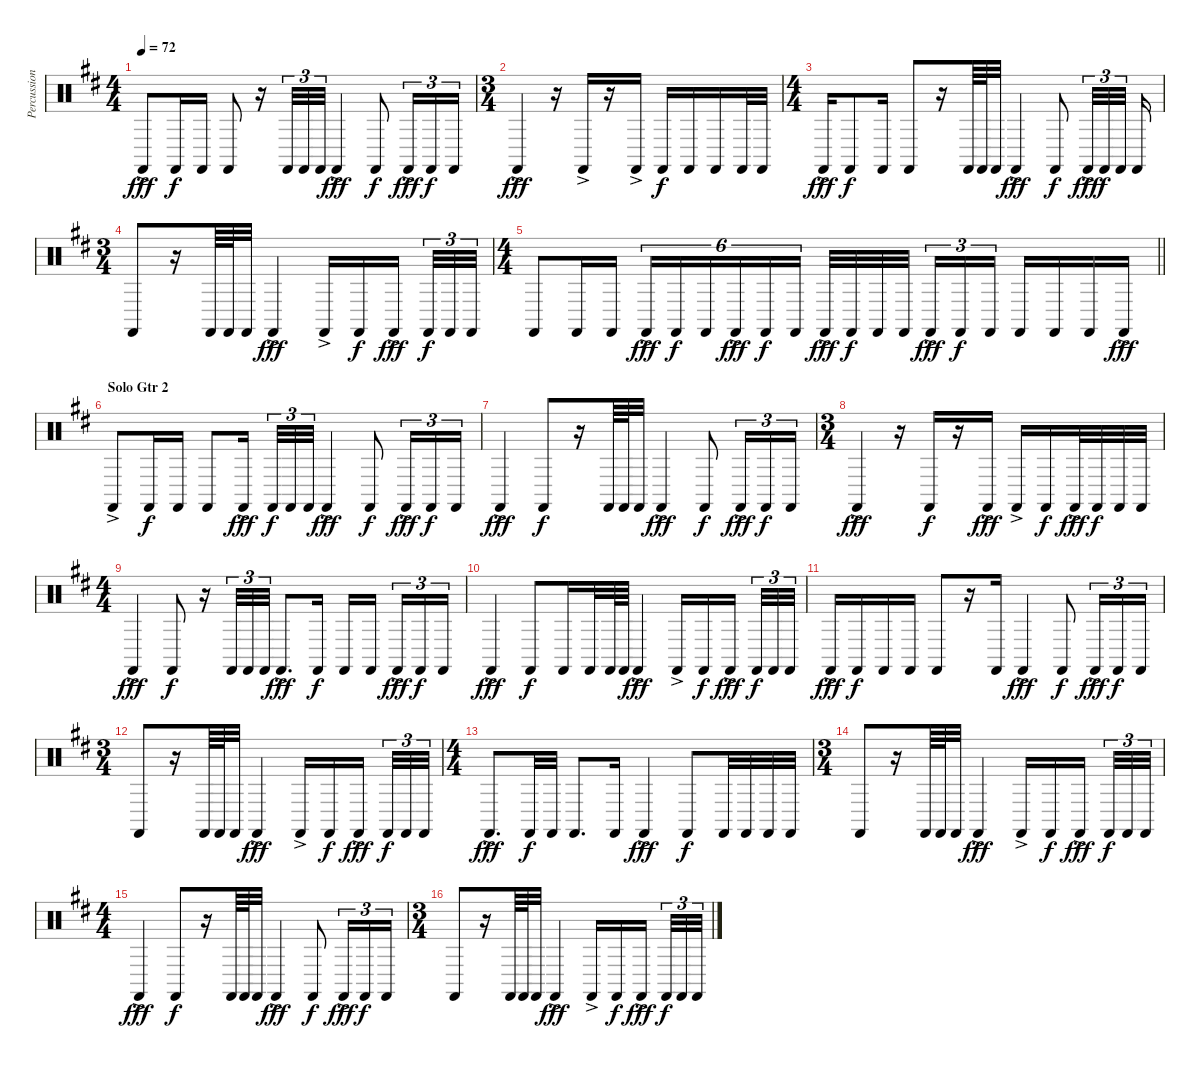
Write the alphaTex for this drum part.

\track ("Percussions" "Percussion") {instrument percussion}
\staff {score}
\articulation defaults
\ts (4 4)
\tempo 72
\clef neutral
\ks bminor "Castanets (hit)"{ac}.8{dy fff} "Castanets (hit)".16{dy f} "Castanets (hit)".16 "Castanets (hit)".8
r.16 "Castanets (hit)".32{tu (3 2)} "Castanets (hit)".32{tu (3 2)} "Castanets (hit)".32{tu (3 2)} "Castanets (hit)"{ac}.4{dy fff} "Castanets (hit)".8{dy f} "Castanets (hit)"{ac}.16{tu (3 2) dy fff} "Castanets (hit)".16{tu (3 2) dy f} "Castanets (hit)".16{tu (3 2)} |
\ts (3 4)
"Castanets (hit)"{ac}.4{dy fff} r.16 "Castanets (hit)"{ac}.16 r.16 "Castanets (hit)"{ac}.16 "Castanets (hit)".16{dy f} "Castanets (hit)".16 "Castanets (hit)".16 "Castanets (hit)".32 "Castanets (hit)".32 |
\ts (4 4)
"Castanets (hit)"{ac}.16{dy fff} "Castanets (hit)".8{dy f} "Castanets (hit)".16 "Castanets (hit)".8 r.16 "Castanets (hit)".64 "Castanets (hit)".64 "Castanets (hit)".32 "Castanets (hit)"{ac}.4{dy fff} "Castanets (hit)".8{dy f} "Castanets (hit)"{ac}.32{tu (3 2) dy fff} "Castanets (hit)".32{tu (3 2) dy f} "Castanets (hit)".32{tu (3 2)} "Castanets (hit)".16 |
\ts (3 4)
"Castanets (hit)".8 r.16 "Castanets (hit)".64 "Castanets (hit)".64 "Castanets (hit)".32 "Castanets (hit)"{ac}.4{dy fff} "Castanets (hit)"{ac}.16 "Castanets (hit)".16{dy f} "Castanets (hit)"{ac}.16{dy fff} "Castanets (hit)".32{tu (3 2) dy f} "Castanets (hit)".32{tu (3 2)} "Castanets (hit)".32{tu (3 2)} |
\ts (4 4)
\barLineRight lightlight "Castanets (hit)".8 "Castanets (hit)".16 "Castanets (hit)".16 "Castanets (hit)"{ac}.16{tu (6 4) dy fff} "Castanets (hit)".16{tu (6 4) dy f} "Castanets (hit)".16{tu (6 4)} "Castanets (hit)"{ac}.16{tu (6 4) dy fff} "Castanets (hit)".16{tu (6 4) dy f} "Castanets (hit)".16{tu (6 4)} "Castanets (hit)"{ac}.32{dy fff} "Castanets (hit)".32{dy f} "Castanets (hit)".32 "Castanets (hit)".32 "Castanets (hit)"{ac}.16{tu (3 2) dy fff} "Castanets (hit)".16{tu (3 2) dy f} "Castanets (hit)".16{tu (3 2)} "Castanets (hit)".16 "Castanets (hit)".16 "Castanets (hit)".16 "Castanets (hit)"{ac}.16{dy fff}
|
\section ("" "Solo Gtr 2")
"Castanets (hit)"{ac}.8{volume 8} "Castanets (hit)".16{dy f} "Castanets (hit)".16 "Castanets (hit)".8 "Castanets (hit)"{ac}.16{dy fff} "Castanets (hit)".32{tu (3 2) dy f} "Castanets (hit)".32{tu (3 2)} "Castanets (hit)".32{tu (3 2)} "Castanets (hit)"{ac}.4{dy fff} "Castanets (hit)".8{dy f} "Castanets (hit)"{ac}.16{tu (3 2) dy fff} "Castanets (hit)".16{tu (3 2) dy f} "Castanets (hit)".16{tu (3 2)} |
"Castanets (hit)"{ac}.4{dy fff} "Castanets (hit)".8{dy f} r.16 "Castanets (hit)".64 "Castanets (hit)".64 "Castanets (hit)".32 "Castanets (hit)"{ac}.4{dy fff} "Castanets (hit)".8{dy f} "Castanets (hit)"{ac}.16{tu (3 2) dy fff} "Castanets (hit)".16{tu (3 2) dy f} "Castanets (hit)".16{tu (3 2)} |
\ts (3 4)
"Castanets (hit)"{ac}.4{dy fff} r.16 "Castanets (hit)".16{dy f} r.16 "Castanets (hit)"{ac}.16{dy fff} "Castanets (hit)"{ac}.16 "Castanets (hit)".16{dy f} "Castanets (hit)"{ac}.32{dy fff} "Castanets (hit)".32{dy f} "Castanets (hit)".32 "Castanets (hit)".32 |
\ts (4 4)
"Castanets (hit)"{ac}.4{dy fff} "Castanets (hit)".8{dy f} r.16 "Castanets (hit)".32{tu (3 2)} "Castanets (hit)".32{tu (3 2)} "Castanets (hit)".32{tu (3 2)} "Castanets (hit)"{ac}.8{d dy fff} "Castanets (hit)".16{dy f} "Castanets (hit)".16 "Castanets (hit)".16 "Castanets (hit)"{ac}.16{tu (3 2) dy fff} "Castanets (hit)".16{tu (3 2) dy f} "Castanets (hit)".16{tu (3 2)} |
"Castanets (hit)"{ac}.4{dy fff} "Castanets (hit)".8{dy f} "Castanets (hit)".16 "Castanets (hit)".32 "Castanets (hit)".64 "Castanets (hit)".64 "Castanets (hit)"{ac}.4{dy fff} "Castanets (hit)"{ac}.16 "Castanets (hit)".16{dy f} "Castanets (hit)"{ac}.16{dy fff} "Castanets (hit)".32{tu (3 2) dy f} "Castanets (hit)".32{tu (3 2)} "Castanets (hit)".32{tu (3 2)} |
"Castanets (hit)"{ac}.16{dy fff} "Castanets (hit)".16{dy f} "Castanets (hit)".16 "Castanets (hit)".16 "Castanets (hit)".8 r.16 "Castanets (hit)".16 "Castanets (hit)"{ac}.4{dy fff} "Castanets (hit)".8{dy f} "Castanets (hit)"{ac}.16{tu (3 2) dy fff} "Castanets (hit)".16{tu (3 2) dy f} "Castanets (hit)".16{tu (3 2)} |
\ts (3 4)
"Castanets (hit)".8 r.16 "Castanets (hit)".64 "Castanets (hit)".64 "Castanets (hit)".32 "Castanets (hit)"{ac}.4{dy fff} "Castanets (hit)"{ac}.16 "Castanets (hit)".16{dy f} "Castanets (hit)"{ac}.16{dy fff} "Castanets (hit)".32{tu (3 2) dy f} "Castanets (hit)".32{tu (3 2)} "Castanets (hit)".32{tu (3 2)} |
\ts (4 4)
"Castanets (hit)"{ac}.8{d dy fff} "Castanets (hit)".32{dy f} "Castanets (hit)".32 "Castanets (hit)".8{d} "Castanets (hit)".16 "Castanets (hit)"{ac}.4{dy fff} "Castanets (hit)".8{dy f} "Castanets (hit)".32 "Castanets (hit)".32 "Castanets (hit)".32 "Castanets (hit)".32 |
\ts (3 4)
"Castanets (hit)".8 r.16 "Castanets (hit)".64 "Castanets (hit)".64 "Castanets (hit)".32 "Castanets (hit)"{ac}.4{dy fff} "Castanets (hit)"{ac}.16 "Castanets (hit)".16{dy f} "Castanets (hit)"{ac}.16{dy fff} "Castanets (hit)".32{tu (3 2) dy f} "Castanets (hit)".32{tu (3 2)} "Castanets (hit)".32{tu (3 2)} |
\ts (4 4)
"Castanets (hit)"{ac}.4{dy fff} "Castanets (hit)".8{dy f} r.16 "Castanets (hit)".64 "Castanets (hit)".64 "Castanets (hit)".32 "Castanets (hit)"{ac}.4{dy fff} "Castanets (hit)".8{dy f} "Castanets (hit)"{ac}.16{tu (3 2) dy fff} "Castanets (hit)".16{tu (3 2) dy f} "Castanets (hit)".16{tu (3 2)} |
\ts (3 4)
"Castanets (hit)".8 r.16 "Castanets (hit)".64 "Castanets (hit)".64 "Castanets (hit)".32 "Castanets (hit)"{ac}.4{dy fff} "Castanets (hit)"{ac}.16 "Castanets (hit)".16{dy f} "Castanets (hit)"{ac}.16{dy fff} "Castanets (hit)".32{tu (3 2) dy f} "Castanets (hit)".32{tu (3 2)} "Castanets (hit)".32{tu (3 2)}
